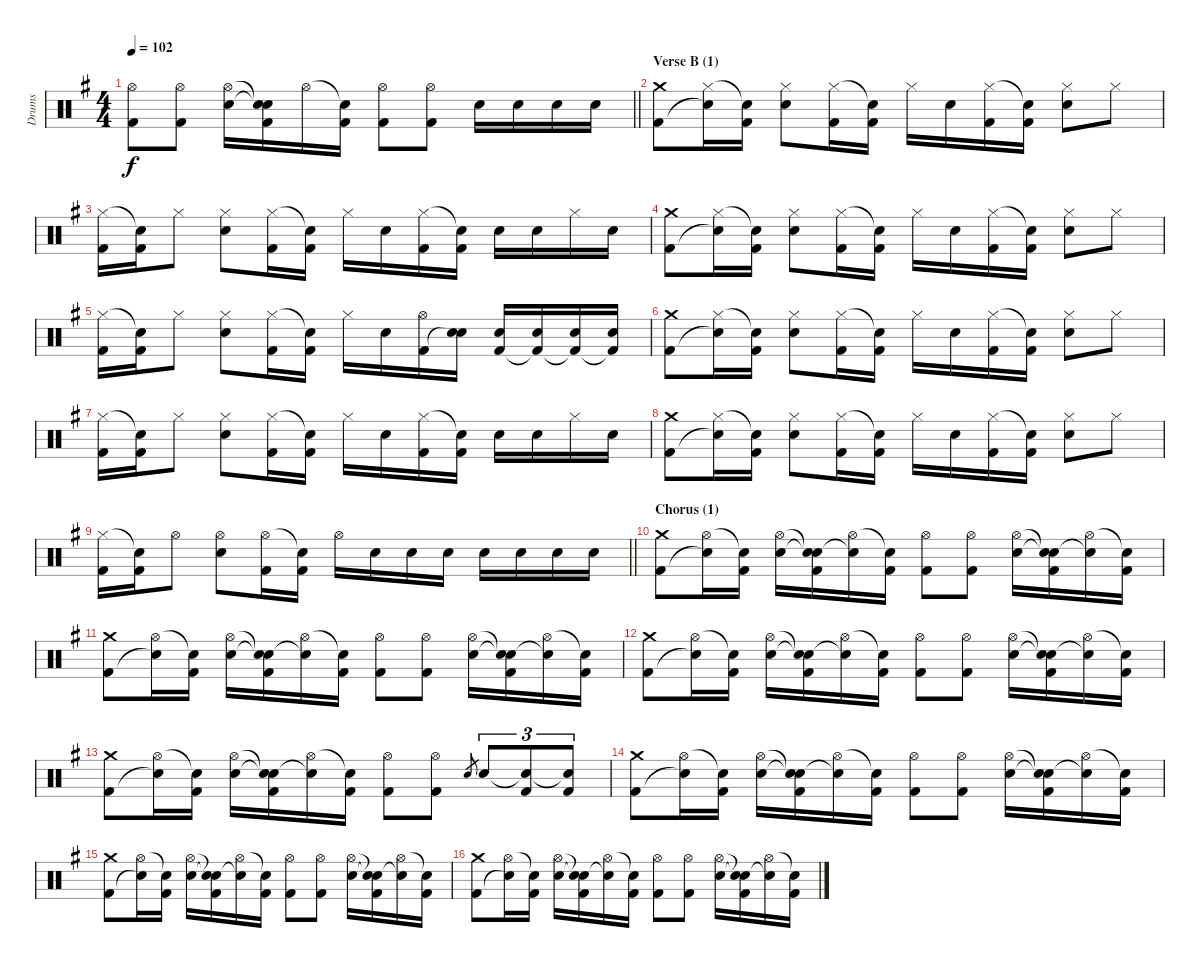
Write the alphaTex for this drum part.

\track ("Drums" "Drums") {instrument percussion}
\staff {score}
\articulation defaults
\ts (4 4)
\tempo 102
\clef neutral
\barLineRight lightlight
\ks eminor
("Hi-Hat (open)" "Kick (hit) 2").8{dy f} ("Hi-Hat (open)" "Kick (hit) 2").8 ("Hi-Hat (open)" "Electric Snare (hit)").16 ("Snare (hit)"{t} "Snare (hit)"{t} "Kick (hit) 2").16 "Hi-Hat (open)".16 ("Snare (hit)"{t} "Kick (hit) 2").16 ("Hi-Hat (open)" "Kick (hit) 2").8 ("Hi-Hat (open)" "Kick (hit) 2").8 "Electric Snare (hit)".16 "Electric Snare (hit)".16 "Electric Snare (hit)".16 "Electric Snare (hit)".16 |
\section ("" "Verse B (1)")
("Crash medium (hit)" "Kick (hit) 2").8 ("Hi-Hat (closed)" "Snare (hit)"{t}).16 ("Snare (hit)"{t} "Kick (hit) 2").16 ("Hi-Hat (closed)" "Electric Snare (hit)").8 ("Hi-Hat (closed)" "Kick (hit) 2").16 ("Snare (hit)"{t} "Kick (hit) 2").16 "Hi-Hat (closed)".16 "Electric Snare (hit)".16 ("Hi-Hat (closed)" "Kick (hit) 2").16 ("Snare (hit)"{t} "Kick (hit) 2").16 ("Hi-Hat (closed)" "Electric Snare (hit)").8 "Hi-Hat (closed)".8 |
("Hi-Hat (closed)" "Kick (hit) 2").16 ("Snare (hit)"{t} "Kick (hit) 2").16 "Hi-Hat (closed)".8 ("Hi-Hat (closed)" "Electric Snare (hit)").8 ("Hi-Hat (closed)" "Kick (hit) 2").16 ("Snare (hit)"{t} "Kick (hit) 2").16 "Hi-Hat (closed)".16 "Electric Snare (hit)".16 ("Hi-Hat (closed)" "Kick (hit) 2").16 ("Snare (hit)"{t} "Kick (hit) 2").16 "Electric Snare (hit)".16 "Electric Snare (hit)".16 "Hi-Hat (closed)".16 "Electric Snare (hit)".16 |
("Crash medium (hit)" "Kick (hit) 2").8 ("Hi-Hat (closed)" "Snare (hit)"{t}).16 ("Snare (hit)"{t} "Kick (hit) 2").16 ("Hi-Hat (closed)" "Electric Snare (hit)").8 ("Hi-Hat (closed)" "Kick (hit) 2").16 ("Snare (hit)"{t} "Kick (hit) 2").16 "Hi-Hat (closed)".16 "Electric Snare (hit)".16 ("Hi-Hat (closed)" "Kick (hit) 2").16 ("Snare (hit)"{t} "Kick (hit) 2").16 ("Hi-Hat (closed)" "Electric Snare (hit)").8 "Hi-Hat (closed)".8 |
("Hi-Hat (closed)" "Kick (hit) 2").16 ("Snare (hit)"{t} "Kick (hit) 2").16 "Hi-Hat (closed)".8 ("Hi-Hat (closed)" "Electric Snare (hit)").8 ("Hi-Hat (closed)" "Kick (hit) 2").16 ("Snare (hit)"{t} "Kick (hit) 2").16 "Hi-Hat (closed)".16 "Electric Snare (hit)".16 ("Hi-Hat (open)" "Kick (hit) 2").16 ("Electric Snare (hit)" "Snare (hit)"{t}).16 ("Electric Snare (hit)" "Kick (hit) 2").16 ("Electric Snare (hit)" "Kick (hit) 2"{t}).16 ("Electric Snare (hit)" "Kick (hit) 2"{t}).16 ("Electric Snare (hit)" "Kick (hit) 2"{t}).16 |
("Crash medium (hit)" "Kick (hit) 2").8 ("Hi-Hat (closed)" "Snare (hit)"{t}).16 ("Snare (hit)"{t} "Kick (hit) 2").16 ("Hi-Hat (closed)" "Electric Snare (hit)").8 ("Hi-Hat (closed)" "Kick (hit) 2").16 ("Snare (hit)"{t} "Kick (hit) 2").16 "Hi-Hat (closed)".16 "Electric Snare (hit)".16 ("Hi-Hat (closed)" "Kick (hit) 2").16 ("Snare (hit)"{t} "Kick (hit) 2").16 ("Hi-Hat (closed)" "Electric Snare (hit)").8 "Hi-Hat (closed)".8 |
("Hi-Hat (closed)" "Kick (hit) 2").16 ("Snare (hit)"{t} "Kick (hit) 2").16 "Hi-Hat (closed)".8 ("Hi-Hat (closed)" "Electric Snare (hit)").8 ("Hi-Hat (closed)" "Kick (hit) 2").16 ("Snare (hit)"{t} "Kick (hit) 2").16 "Hi-Hat (closed)".16 "Electric Snare (hit)".16 ("Hi-Hat (closed)" "Kick (hit) 2").16 ("Snare (hit)"{t} "Kick (hit) 2").16 "Electric Snare (hit)".16 "Electric Snare (hit)".16 "Hi-Hat (closed)".16 "Electric Snare (hit)".16 |
("Crash medium (hit)" "Kick (hit) 2").8 ("Hi-Hat (closed)" "Snare (hit)"{t}).16 ("Snare (hit)"{t} "Kick (hit) 2").16 ("Hi-Hat (closed)" "Electric Snare (hit)").8 ("Hi-Hat (closed)" "Kick (hit) 2").16 ("Snare (hit)"{t} "Kick (hit) 2").16 "Hi-Hat (closed)".16 "Electric Snare (hit)".16 ("Hi-Hat (closed)" "Kick (hit) 2").16 ("Snare (hit)"{t} "Kick (hit) 2").16 ("Hi-Hat (closed)" "Electric Snare (hit)").8 "Hi-Hat (closed)".8 |
\barLineRight lightlight
("Hi-Hat (closed)" "Kick (hit) 2").16 ("Snare (hit)"{t} "Kick (hit) 2").16 "Hi-Hat (open)".8 ("Hi-Hat (open)" "Electric Snare (hit)").8 ("Hi-Hat (open)" "Kick (hit) 2").16 ("Snare (hit)"{t} "Kick (hit) 2").16 "Hi-Hat (open)".16 "Electric Snare (hit)".16 "Electric Snare (hit)".16 "Electric Snare (hit)".16 "Electric Snare (hit)".16 "Electric Snare (hit)".16 "Electric Snare (hit)".16 "Electric Snare (hit)".16 |
\section ("" "Chorus (1)")
("Crash medium (hit)" "Kick (hit) 2").8 ("Hi-Hat (open)" "Snare (hit)"{t}).16 ("Snare (hit)"{t} "Kick (hit) 2").16 ("Hi-Hat (open)" "Electric Snare (hit)").16 ("Snare (hit)"{t} "Snare (hit)"{t} "Kick (hit) 2").16 ("Hi-Hat (open)" "Snare (hit)"{t}).16 ("Snare (hit)"{t} "Kick (hit) 2").16 ("Hi-Hat (open)" "Kick (hit) 2").8 ("Hi-Hat (open)" "Kick (hit) 2").8 ("Hi-Hat (open)" "Electric Snare (hit)").16 ("Snare (hit)"{t} "Snare (hit)"{t} "Kick (hit) 2").16 ("Hi-Hat (open)" "Snare (hit)"{t}).16 ("Snare (hit)"{t} "Kick (hit) 2").16 |
("Crash medium (hit)" "Kick (hit) 2").8 ("Hi-Hat (open)" "Snare (hit)"{t}).16 ("Snare (hit)"{t} "Kick (hit) 2").16 ("Hi-Hat (open)" "Electric Snare (hit)").16 ("Snare (hit)"{t} "Snare (hit)"{t} "Kick (hit) 2").16 ("Hi-Hat (open)" "Snare (hit)"{t}).16 ("Snare (hit)"{t} "Kick (hit) 2").16 ("Hi-Hat (open)" "Kick (hit) 2").8 ("Hi-Hat (open)" "Kick (hit) 2").8 ("Hi-Hat (open)" "Electric Snare (hit)").16 ("Snare (hit)"{t} "Snare (hit)"{t} "Kick (hit) 2").16 ("Hi-Hat (open)" "Snare (hit)"{t}).16 ("Snare (hit)"{t} "Kick (hit) 2").16 |
("Crash medium (hit)" "Kick (hit) 2").8 ("Hi-Hat (open)" "Snare (hit)"{t}).16 ("Snare (hit)"{t} "Kick (hit) 2").16 ("Hi-Hat (open)" "Electric Snare (hit)").16 ("Snare (hit)"{t} "Snare (hit)"{t} "Kick (hit) 2").16 ("Hi-Hat (open)" "Snare (hit)"{t}).16 ("Snare (hit)"{t} "Kick (hit) 2").16 ("Hi-Hat (open)" "Kick (hit) 2").8 ("Hi-Hat (open)" "Kick (hit) 2").8 ("Hi-Hat (open)" "Electric Snare (hit)").16 ("Snare (hit)"{t} "Snare (hit)"{t} "Kick (hit) 2").16 ("Hi-Hat (open)" "Snare (hit)"{t}).16 ("Snare (hit)"{t} "Kick (hit) 2").16 |
("Crash medium (hit)" "Kick (hit) 2").8 ("Hi-Hat (open)" "Snare (hit)"{t}).16 ("Snare (hit)"{t} "Kick (hit) 2").16 ("Hi-Hat (open)" "Electric Snare (hit)").16 ("Snare (hit)"{t} "Snare (hit)"{t} "Kick (hit) 2").16 ("Hi-Hat (open)" "Snare (hit)"{t}).16 ("Snare (hit)"{t} "Kick (hit) 2").16 ("Hi-Hat (open)" "Kick (hit) 2").8 ("Hi-Hat (open)" "Kick (hit) 2").8 "Electric Snare (hit)".8{gr} "Electric Snare (hit)".8{tu (3 2)} ("Snare (hit)"{t} "Kick (hit) 2").8{tu (3 2)} ("Snare (hit)"{t} "Kick (hit) 2").8{tu (3 2)} |
("Crash medium (hit)" "Kick (hit) 2").8 ("Hi-Hat (open)" "Snare (hit)"{t}).16 ("Snare (hit)"{t} "Kick (hit) 2").16 ("Hi-Hat (open)" "Electric Snare (hit)").16 ("Snare (hit)"{t} "Snare (hit)"{t} "Kick (hit) 2").16 ("Hi-Hat (open)" "Snare (hit)"{t}).16 ("Snare (hit)"{t} "Kick (hit) 2").16 ("Hi-Hat (open)" "Kick (hit) 2").8 ("Hi-Hat (open)" "Kick (hit) 2").8 ("Hi-Hat (open)" "Electric Snare (hit)").16 ("Snare (hit)"{t} "Snare (hit)"{t} "Kick (hit) 2").16 ("Hi-Hat (open)" "Snare (hit)"{t}).16 ("Snare (hit)"{t} "Kick (hit) 2").16 |
("Crash medium (hit)" "Kick (hit) 2").8 ("Hi-Hat (open)" "Snare (hit)"{t}).16 ("Snare (hit)"{t} "Kick (hit) 2").16 ("Hi-Hat (open)" "Electric Snare (hit)").16 ("Snare (hit)"{t} "Snare (hit)"{t} "Kick (hit) 2").16 ("Hi-Hat (open)" "Snare (hit)"{t}).16 ("Snare (hit)"{t} "Kick (hit) 2").16 ("Hi-Hat (open)" "Kick (hit) 2").8 ("Hi-Hat (open)" "Kick (hit) 2").8 ("Hi-Hat (open)" "Electric Snare (hit)").16 ("Snare (hit)"{t} "Snare (hit)"{t} "Kick (hit) 2").16 ("Hi-Hat (open)" "Snare (hit)"{t}).16 ("Snare (hit)"{t} "Kick (hit) 2").16 |
("Crash medium (hit)" "Kick (hit) 2").8 ("Hi-Hat (open)" "Snare (hit)"{t}).16 ("Snare (hit)"{t} "Kick (hit) 2").16 ("Hi-Hat (open)" "Electric Snare (hit)").16 ("Snare (hit)"{t} "Snare (hit)"{t} "Kick (hit) 2").16 ("Hi-Hat (open)" "Snare (hit)"{t}).16 ("Snare (hit)"{t} "Kick (hit) 2").16 ("Hi-Hat (open)" "Kick (hit) 2").8 ("Hi-Hat (open)" "Kick (hit) 2").8 ("Hi-Hat (open)" "Electric Snare (hit)").16 ("Snare (hit)"{t} "Snare (hit)"{t} "Kick (hit) 2").16 ("Hi-Hat (open)" "Snare (hit)"{t}).16 ("Snare (hit)"{t} "Kick (hit) 2").16
